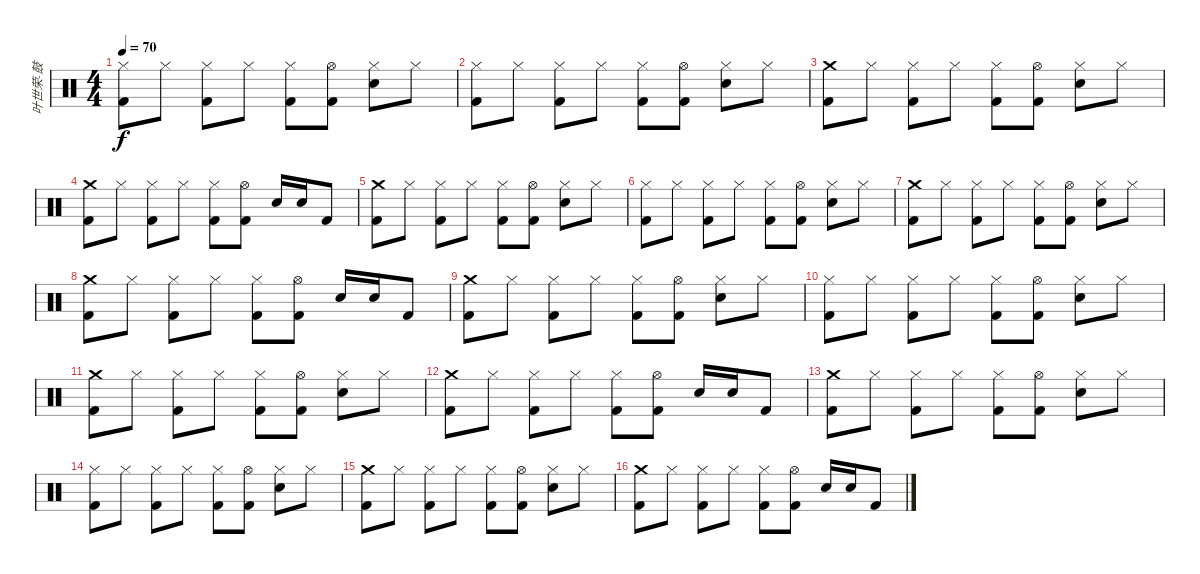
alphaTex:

\track ("叶世荣-鼓" "叶世荣-鼓") {instrument percussion}
\staff {score}
\articulation defaults
\ts (4 4)
\tempo 70
\clef neutral
\ks c
("Hi-Hat (closed)" "Kick (hit) 2").8{dy f} "Hi-Hat (closed)".8 ("Hi-Hat (closed)" "Kick (hit) 2").8 "Hi-Hat (closed)".8 ("Hi-Hat (closed)" "Kick (hit) 2").8 ("Hi-Hat (open)" "Kick (hit) 2").8 ("Hi-Hat (closed)" "Snare (hit) 2").8 "Hi-Hat (closed)".8 |
("Hi-Hat (closed)" "Kick (hit) 2").8 "Hi-Hat (closed)".8 ("Hi-Hat (closed)" "Kick (hit) 2").8 "Hi-Hat (closed)".8 ("Hi-Hat (closed)" "Kick (hit) 2").8 ("Hi-Hat (open)" "Kick (hit) 2").8 ("Hi-Hat (closed)" "Snare (hit) 2").8 "Hi-Hat (closed)".8 |
("Crash medium (hit)" "Kick (hit) 2").8 "Hi-Hat (closed)".8 ("Hi-Hat (closed)" "Kick (hit) 2").8 "Hi-Hat (closed)".8 ("Hi-Hat (closed)" "Kick (hit) 2").8 ("Hi-Hat (open)" "Kick (hit) 2").8 ("Hi-Hat (closed)" "Snare (hit) 2").8 "Hi-Hat (closed)".8 |
("Crash medium (hit)" "Kick (hit) 2").8 "Hi-Hat (closed)".8 ("Hi-Hat (closed)" "Kick (hit) 2").8 "Hi-Hat (closed)".8 ("Hi-Hat (closed)" "Kick (hit) 2").8 ("Hi-Hat (open)" "Kick (hit) 2").8 "Snare (hit) 2".16 "Snare (hit) 2".16 "Kick (hit) 2".8 |
("Crash medium (hit)" "Kick (hit) 2").8 "Hi-Hat (closed)".8 ("Hi-Hat (closed)" "Kick (hit) 2").8 "Hi-Hat (closed)".8 ("Hi-Hat (closed)" "Kick (hit) 2").8 ("Hi-Hat (open)" "Kick (hit) 2").8 ("Hi-Hat (closed)" "Snare (hit) 2").8 "Hi-Hat (closed)".8 |
("Hi-Hat (closed)" "Kick (hit) 2").8 "Hi-Hat (closed)".8 ("Hi-Hat (closed)" "Kick (hit) 2").8 "Hi-Hat (closed)".8 ("Hi-Hat (closed)" "Kick (hit) 2").8 ("Hi-Hat (open)" "Kick (hit) 2").8 ("Hi-Hat (closed)" "Snare (hit) 2").8 "Hi-Hat (closed)".8 |
("Crash medium (hit)" "Kick (hit) 2").8 "Hi-Hat (closed)".8 ("Hi-Hat (closed)" "Kick (hit) 2").8 "Hi-Hat (closed)".8 ("Hi-Hat (closed)" "Kick (hit) 2").8 ("Hi-Hat (open)" "Kick (hit) 2").8 ("Hi-Hat (closed)" "Snare (hit) 2").8 "Hi-Hat (closed)".8 |
("Crash medium (hit)" "Kick (hit) 2").8 "Hi-Hat (closed)".8 ("Hi-Hat (closed)" "Kick (hit) 2").8 "Hi-Hat (closed)".8 ("Hi-Hat (closed)" "Kick (hit) 2").8 ("Hi-Hat (open)" "Kick (hit) 2").8 "Snare (hit) 2".16 "Snare (hit) 2".16 "Kick (hit) 2".8 |
("Crash medium (hit)" "Kick (hit) 2").8 "Hi-Hat (closed)".8 ("Hi-Hat (closed)" "Kick (hit) 2").8 "Hi-Hat (closed)".8 ("Hi-Hat (closed)" "Kick (hit) 2").8 ("Hi-Hat (open)" "Kick (hit) 2").8 ("Hi-Hat (closed)" "Snare (hit) 2").8 "Hi-Hat (closed)".8 |
("Hi-Hat (closed)" "Kick (hit) 2").8 "Hi-Hat (closed)".8 ("Hi-Hat (closed)" "Kick (hit) 2").8 "Hi-Hat (closed)".8 ("Hi-Hat (closed)" "Kick (hit) 2").8 ("Hi-Hat (open)" "Kick (hit) 2").8 ("Hi-Hat (closed)" "Snare (hit) 2").8 "Hi-Hat (closed)".8 |
("Crash medium (hit)" "Kick (hit) 2").8 "Hi-Hat (closed)".8 ("Hi-Hat (closed)" "Kick (hit) 2").8 "Hi-Hat (closed)".8 ("Hi-Hat (closed)" "Kick (hit) 2").8 ("Hi-Hat (open)" "Kick (hit) 2").8 ("Hi-Hat (closed)" "Snare (hit) 2").8 "Hi-Hat (closed)".8 |
("Crash medium (hit)" "Kick (hit) 2").8 "Hi-Hat (closed)".8 ("Hi-Hat (closed)" "Kick (hit) 2").8 "Hi-Hat (closed)".8 ("Hi-Hat (closed)" "Kick (hit) 2").8 ("Hi-Hat (open)" "Kick (hit) 2").8 "Snare (hit) 2".16 "Snare (hit) 2".16 "Kick (hit) 2".8 |
("Crash medium (hit)" "Kick (hit) 2").8 "Hi-Hat (closed)".8 ("Hi-Hat (closed)" "Kick (hit) 2").8 "Hi-Hat (closed)".8 ("Hi-Hat (closed)" "Kick (hit) 2").8 ("Hi-Hat (open)" "Kick (hit) 2").8 ("Hi-Hat (closed)" "Snare (hit) 2").8 "Hi-Hat (closed)".8 |
("Hi-Hat (closed)" "Kick (hit) 2").8 "Hi-Hat (closed)".8 ("Hi-Hat (closed)" "Kick (hit) 2").8 "Hi-Hat (closed)".8 ("Hi-Hat (closed)" "Kick (hit) 2").8 ("Hi-Hat (open)" "Kick (hit) 2").8 ("Hi-Hat (closed)" "Snare (hit) 2").8 "Hi-Hat (closed)".8 |
("Crash medium (hit)" "Kick (hit) 2").8 "Hi-Hat (closed)".8 ("Hi-Hat (closed)" "Kick (hit) 2").8 "Hi-Hat (closed)".8 ("Hi-Hat (closed)" "Kick (hit) 2").8 ("Hi-Hat (open)" "Kick (hit) 2").8 ("Hi-Hat (closed)" "Snare (hit) 2").8 "Hi-Hat (closed)".8 |
("Crash medium (hit)" "Kick (hit) 2").8 "Hi-Hat (closed)".8 ("Hi-Hat (closed)" "Kick (hit) 2").8 "Hi-Hat (closed)".8 ("Hi-Hat (closed)" "Kick (hit) 2").8 ("Hi-Hat (open)" "Kick (hit) 2").8 "Snare (hit) 2".16 "Snare (hit) 2".16 "Kick (hit) 2".8
